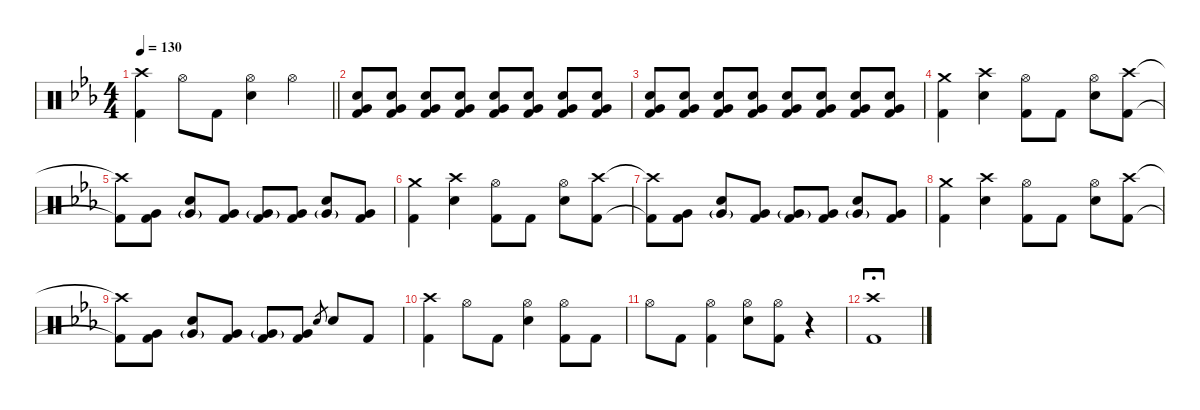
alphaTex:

\defaultSystemsLayout 4
\hideDynamics
\bracketExtendMode nobrackets
\singleTrackTrackNamePolicy hidden
\multiTrackTrackNamePolicy hidden
\firstSystemTrackNameMode fullname
\otherSystemsTrackNameOrientation horizontal
\track ("Drums" "drm.") {instrument percussion}
\staff {score}
\articulation defaults
\ts (4 4)
\tempo 130
\clef neutral
\barLineRight lightlight
\ks cminor
("Crash high (hit)"{acc forcenatural} "Kick (hit) 2"{acc forcenatural}).4{dy mp beam Down} "Hi-Hat (open)"{acc forcenatural}.8{beam Down} "Kick (hit) 2"{acc forcenatural}.8{dy f beam Down} ("Hi-Hat (open)"{acc forcenatural} "Snare (hit) 2"{acc forcenatural}).4{dy mp beam Down} "Hi-Hat (open)"{acc forcenatural}.4{beam Down} |
("Snare (hit) 2"{acc forcenatural} "Very Low Tom (hit)"{acc forcenatural} "Kick (hit) 2"{acc forcenatural}).8{dy ppp beam Up} ("Snare (hit) 2"{acc forcenatural} "Very Low Tom (hit)"{acc forcenatural} "Kick (hit) 2"{acc forcenatural}).8{beam Up} ("Snare (hit) 2"{acc forcenatural} "Very Low Tom (hit)"{acc forcenatural} "Kick (hit) 2"{acc forcenatural}).8{dy pp beam Up} ("Snare (hit) 2"{acc forcenatural} "Very Low Tom (hit)"{acc forcenatural} "Kick (hit) 2"{acc forcenatural}).8{beam Up} ("Snare (hit) 2"{acc forcenatural} "Very Low Tom (hit)"{acc forcenatural} "Kick (hit) 2"{acc forcenatural}).8{dy p beam Up} ("Snare (hit) 2"{acc forcenatural} "Very Low Tom (hit)"{acc forcenatural} "Kick (hit) 2"{acc forcenatural}).8{beam Up} ("Snare (hit) 2"{acc forcenatural} "Very Low Tom (hit)"{acc forcenatural} "Kick (hit) 2"{acc forcenatural}).8{dy mp beam Up} ("Snare (hit) 2"{acc forcenatural} "Very Low Tom (hit)"{acc forcenatural} "Kick (hit) 2"{acc forcenatural}).8{beam Up} |
("Snare (hit) 2"{acc forcenatural} "Very Low Tom (hit)"{acc forcenatural} "Kick (hit) 2"{acc forcenatural}).8{dy mf beam Up} ("Snare (hit) 2"{acc forcenatural} "Very Low Tom (hit)"{acc forcenatural} "Kick (hit) 2"{acc forcenatural}).8{beam Up} ("Snare (hit) 2"{acc forcenatural} "Very Low Tom (hit)"{acc forcenatural} "Kick (hit) 2"{acc forcenatural}).8{dy f beam Up} ("Snare (hit) 2"{acc forcenatural} "Very Low Tom (hit)"{acc forcenatural} "Kick (hit) 2"{acc forcenatural}).8{beam Up} ("Snare (hit) 2"{acc forcenatural} "Very Low Tom (hit)"{acc forcenatural} "Kick (hit) 2"{acc forcenatural}).8{dy ff beam Up} ("Snare (hit) 2"{acc forcenatural} "Very Low Tom (hit)"{acc forcenatural} "Kick (hit) 2"{acc forcenatural}).8{beam Up} ("Snare (hit) 2"{acc forcenatural} "Very Low Tom (hit)"{acc forcenatural} "Kick (hit) 2"{acc forcenatural}).8{dy fff beam Up} ("Snare (hit) 2"{acc forcenatural} "Very Low Tom (hit)"{acc forcenatural} "Kick (hit) 2"{acc forcenatural}).8{beam Up} |
("Crash medium (hit)"{acc forcenatural} "Kick (hit) 2"{acc forcenatural}).4{dy f beam Down} ("Crash high (hit)"{acc forcenatural} "Snare (hit) 2"{acc forcenatural}).4{beam Down} ("Hi-Hat (open)"{acc forcenatural} "Kick (hit) 2"{acc forcenatural}).8{dy mp beam Down} "Kick (hit) 2"{acc forcenatural}.8{dy f beam Down} ("Hi-Hat (open)"{acc forcenatural} "Snare (hit) 2"{acc forcenatural}).8{dy mp beam Down} ("Crash high (hit)"{acc forcenatural} "Kick (hit) 2"{acc forcenatural}).8{dy f beam Down} |
("Crash high (hit)"{t acc forcenatural} "Kick (hit) 2"{t acc forcenatural}).8{beam Down} ("Very Low Tom (hit)"{acc forcenatural} "Kick (hit) 2"{acc forcenatural}).8{beam Down} ("Snare (hit) 2"{acc forcenatural} "Very Low Tom (hit)"{g acc forcenatural}).8{beam Up} ("Very Low Tom (hit)"{acc forcenatural} "Kick (hit) 2"{acc forcenatural}).8{beam Up} ("Very Low Tom (hit)"{g acc forcenatural} "Kick (hit) 2"{acc forcenatural}).8{beam Up} ("Very Low Tom (hit)"{acc forcenatural} "Kick (hit) 2"{acc forcenatural}).8{beam Up} ("Snare (hit) 2"{acc forcenatural} "Very Low Tom (hit)"{g acc forcenatural}).8{beam Up} ("Very Low Tom (hit)"{acc forcenatural} "Kick (hit) 2"{acc forcenatural}).8{beam Up} |
("Crash medium (hit)"{acc forcenatural} "Kick (hit) 2"{acc forcenatural}).4{beam Down} ("Crash high (hit)"{acc forcenatural} "Snare (hit) 2"{acc forcenatural}).4{beam Down} ("Hi-Hat (open)"{acc forcenatural} "Kick (hit) 2"{acc forcenatural}).8{dy mp beam Down} "Kick (hit) 2"{acc forcenatural}.8{dy f beam Down} ("Hi-Hat (open)"{acc forcenatural} "Snare (hit) 2"{acc forcenatural}).8{dy mp beam Down} ("Crash high (hit)"{acc forcenatural} "Kick (hit) 2"{acc forcenatural}).8{dy f beam Down} |
("Crash high (hit)"{t acc forcenatural} "Kick (hit) 2"{t acc forcenatural}).8{beam Down} ("Very Low Tom (hit)"{acc forcenatural} "Kick (hit) 2"{acc forcenatural}).8{beam Down} ("Snare (hit) 2"{acc forcenatural} "Very Low Tom (hit)"{g acc forcenatural}).8{beam Up} ("Very Low Tom (hit)"{acc forcenatural} "Kick (hit) 2"{acc forcenatural}).8{beam Up} ("Very Low Tom (hit)"{g acc forcenatural} "Kick (hit) 2"{acc forcenatural}).8{beam Up} ("Very Low Tom (hit)"{acc forcenatural} "Kick (hit) 2"{acc forcenatural}).8{beam Up} ("Snare (hit) 2"{acc forcenatural} "Very Low Tom (hit)"{g acc forcenatural}).8{beam Up} ("Very Low Tom (hit)"{acc forcenatural} "Kick (hit) 2"{acc forcenatural}).8{beam Up} |
("Crash medium (hit)"{acc forcenatural} "Kick (hit) 2"{acc forcenatural}).4{beam Down} ("Crash high (hit)"{acc forcenatural} "Snare (hit) 2"{acc forcenatural}).4{beam Down} ("Hi-Hat (open)"{acc forcenatural} "Kick (hit) 2"{acc forcenatural}).8{dy mp beam Down} "Kick (hit) 2"{acc forcenatural}.8{dy f beam Down} ("Hi-Hat (open)"{acc forcenatural} "Snare (hit) 2"{acc forcenatural}).8{dy mp beam Down} ("Crash high (hit)"{acc forcenatural} "Kick (hit) 2"{acc forcenatural}).8{dy f beam Down} |
("Crash high (hit)"{t acc forcenatural} "Kick (hit) 2"{t acc forcenatural}).8{beam Down} ("Very Low Tom (hit)"{acc forcenatural} "Kick (hit) 2"{acc forcenatural}).8{beam Down} ("Snare (hit) 2"{acc forcenatural} "Very Low Tom (hit)"{g acc forcenatural}).8{beam Up} ("Very Low Tom (hit)"{acc forcenatural} "Kick (hit) 2"{acc forcenatural}).8{beam Up} ("Very Low Tom (hit)"{g acc forcenatural} "Kick (hit) 2"{acc forcenatural}).8{beam Up} ("Very Low Tom (hit)"{acc forcenatural} "Kick (hit) 2"{acc forcenatural}).8{beam Up} "Electric Snare (hit)"{acc forcenatural}.8{gr dy mf beam Up} "Snare (hit) 2"{acc forcenatural}.8{dy f beam Up} "Kick (hit) 2"{acc forcenatural}.8{beam Up} |
("Crash high (hit)"{acc forcenatural} "Kick (hit) 2"{acc forcenatural}).4{beam Down} "Hi-Hat (open)"{acc forcenatural}.8{dy mp beam Down} "Kick (hit) 2"{acc forcenatural}.8{dy f beam Down} ("Hi-Hat (open)"{acc forcenatural} "Snare (hit) 2"{acc forcenatural}).4{dy mp beam Down} ("Hi-Hat (open)"{acc forcenatural} "Kick (hit) 2"{acc forcenatural}).8{beam Down} "Kick (hit) 2"{acc forcenatural}.8{dy f beam Down} |
"Hi-Hat (open)"{acc forcenatural}.8{dy mp beam Down} "Kick (hit) 2"{acc forcenatural}.8{dy f beam Down} ("Hi-Hat (open)"{acc forcenatural} "Kick (hit) 2"{acc forcenatural}).4{dy mp beam Down} ("Hi-Hat (open)"{acc forcenatural} "Snare (hit) 2"{acc forcenatural}).8{beam Down} ("Hi-Hat (open)"{acc forcenatural} "Kick (hit) 2"{acc forcenatural}).8{beam Down} r.4{beam Down} |
("Crash high (hit)"{acc forcenatural} "Kick (hit) 2"{acc forcenatural}).1{dy f fermata (long 1) beam Down}
